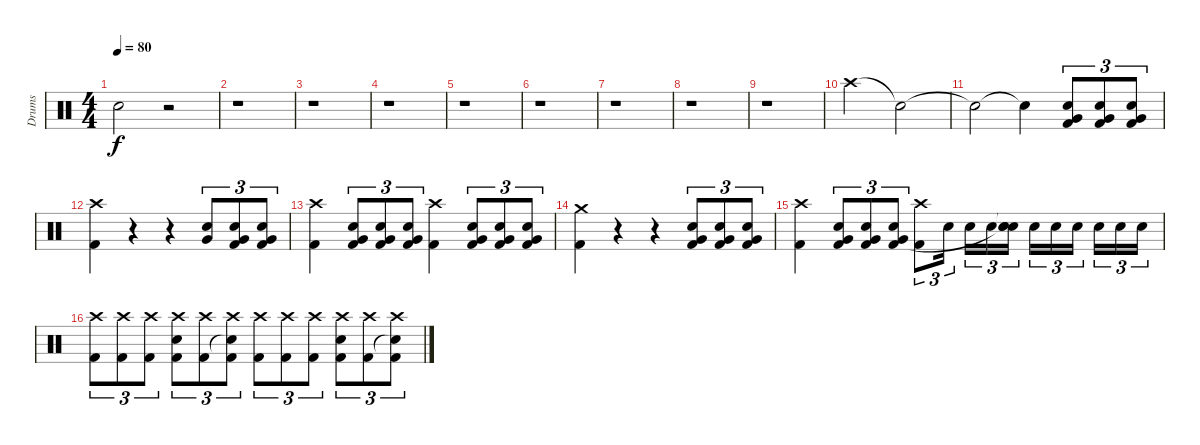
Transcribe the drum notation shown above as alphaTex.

\track ("Drums" "Drums") {instrument percussion}
\staff {score}
\articulation defaults
\ts (4 4)
\tempo 80
\clef neutral
\ks c "Snare (hit)"{t}.2{dy f}
r.2 |
r.1 |
r.1 |
r.1 |
r.1 |
r.1 |
r.1 |
r.1 |
r.1 |
"Crash high (hit)".2 "Snare (hit)"{t}.2 |
"Snare (hit)"{t}.2 "Snare (hit)"{t}.4 ("Snare (hit) 2" "Very Low Tom (hit)" "Kick (hit) 2").8{tu (3 2)} ("Snare (hit) 2" "Very Low Tom (hit)" "Kick (hit) 2").8{tu (3 2)} ("Snare (hit) 2" "Very Low Tom (hit)" "Kick (hit) 2").8{tu (3 2)} |
("Crash high (hit)" "Kick (hit) 2").4 r.4 r.4 ("Snare (hit) 2" "Very Low Tom (hit)").8{tu (3 2)} ("Snare (hit) 2" "Very Low Tom (hit)" "Kick (hit) 2").8{tu (3 2)} ("Snare (hit) 2" "Very Low Tom (hit)" "Kick (hit) 2").8{tu (3 2)} |
("Crash high (hit)" "Kick (hit) 2").4 ("Snare (hit) 2" "Very Low Tom (hit)" "Kick (hit) 2").8{tu (3 2)} ("Snare (hit) 2" "Very Low Tom (hit)" "Kick (hit) 2").8{tu (3 2)} ("Snare (hit) 2" "Very Low Tom (hit)" "Kick (hit) 2").8{tu (3 2)} ("Crash high (hit)" "Kick (hit) 2").4 ("Snare (hit) 2" "Very Low Tom (hit)" "Kick (hit) 2").8{tu (3 2)} ("Snare (hit) 2" "Very Low Tom (hit)" "Kick (hit) 2").8{tu (3 2)} ("Snare (hit) 2" "Very Low Tom (hit)" "Kick (hit) 2").8{tu (3 2)} |
("Crash medium (hit)" "Kick (hit) 2").4 r.4 r.4 ("Snare (hit) 2" "Very Low Tom (hit)" "Kick (hit) 2").8{tu (3 2)} ("Snare (hit) 2" "Very Low Tom (hit)" "Kick (hit) 2").8{tu (3 2)} ("Snare (hit) 2" "Very Low Tom (hit)" "Kick (hit) 2").8{tu (3 2)} |
("Crash high (hit)" "Kick (hit) 2").4 ("Snare (hit) 2" "Very Low Tom (hit)" "Kick (hit) 2").8{tu (3 2)} ("Snare (hit) 2" "Very Low Tom (hit)" "Kick (hit) 2").8{tu (3 2)} ("Snare (hit) 2" "Very Low Tom (hit)" "Kick (hit) 2").8{tu (3 2)} ("Crash high (hit)" "Kick (hit) 2").8{tu (3 2)} "Snare (hit) 2".16{tu (3 2)} "Snare (hit) 2".16{tu (3 2)} "Snare (hit) 2".16{tu (3 2)} ("Snare (hit)"{t} "Snare (hit) 2" "Snare (hit)"{t}).16{tu (3 2)} "Snare (hit) 2".16{tu (3 2)} "Snare (hit) 2".16{tu (3 2)} "Snare (hit) 2".16{tu (3 2)} "Snare (hit) 2".16{tu (3 2)} "Snare (hit) 2".16{tu (3 2)} "Snare (hit) 2".16{tu (3 2)} |
("Crash high (hit)" "Kick (hit) 2").8{tu (3 2)} ("Crash high (hit)" "Kick (hit) 2").8{tu (3 2)} ("Crash high (hit)" "Kick (hit) 2").8{tu (3 2)} ("Crash high (hit)" "Snare (hit) 2" "Kick (hit) 2").8{tu (3 2)} ("Crash high (hit)" "Kick (hit) 2").8{tu (3 2)} ("Crash high (hit)" "Snare (hit)"{t} "Kick (hit) 2").8{tu (3 2)} ("Crash high (hit)" "Kick (hit) 2").8{tu (3 2)} ("Crash high (hit)" "Kick (hit) 2").8{tu (3 2)} ("Crash high (hit)" "Kick (hit) 2").8{tu (3 2)} ("Crash high (hit)" "Snare (hit) 2" "Kick (hit) 2").8{tu (3 2)} ("Crash high (hit)" "Kick (hit) 2").8{tu (3 2)} ("Crash high (hit)" "Snare (hit)"{t} "Kick (hit) 2").8{tu (3 2)}
